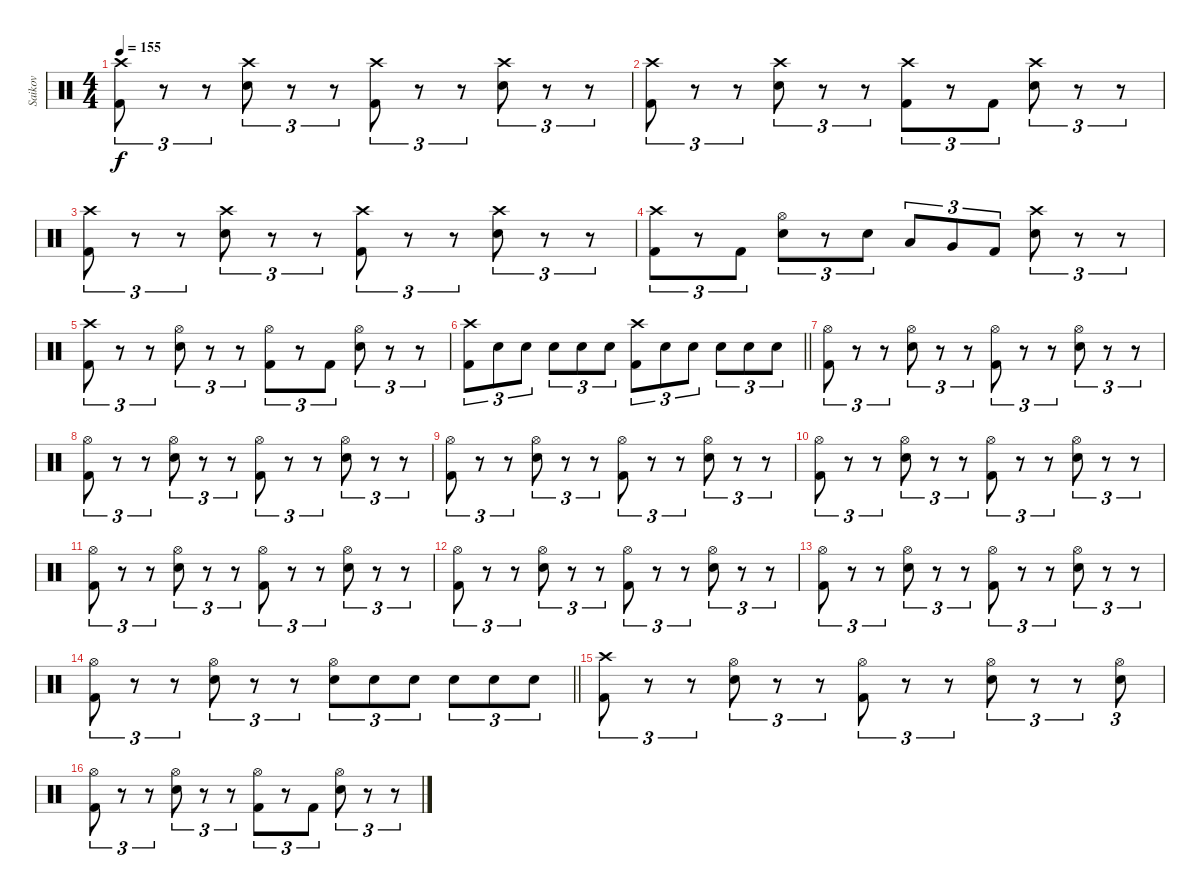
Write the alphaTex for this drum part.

\track ("Saikov" "Saikov") {instrument percussion}
\staff {score}
\articulation defaults
\ts (4 4)
\tempo 155
\clef neutral
\ks c
("Crash high (hit)" "Kick (hit) 2").8{tu (3 2) dy f} r.8{tu (3 2)} r.8{tu (3 2)} ("Crash high (hit)" "Snare (hit) 2").8{tu (3 2)} r.8{tu (3 2)} r.8{tu (3 2)} ("Crash high (hit)" "Kick (hit) 2").8{tu (3 2)} r.8{tu (3 2)} r.8{tu (3 2)} ("Crash high (hit)" "Snare (hit) 2").8{tu (3 2)} r.8{tu (3 2)} r.8{tu (3 2)} |
("Crash high (hit)" "Kick (hit) 2").8{tu (3 2)} r.8{tu (3 2)} r.8{tu (3 2)} ("Crash high (hit)" "Snare (hit) 2").8{tu (3 2)} r.8{tu (3 2)} r.8{tu (3 2)} ("Crash high (hit)" "Kick (hit) 2").8{tu (3 2)} r.8{tu (3 2)} "Kick (hit) 2".8{tu (3 2)} ("Crash high (hit)" "Snare (hit) 2").8{tu (3 2)} r.8{tu (3 2)} r.8{tu (3 2)} |
("Crash high (hit)" "Kick (hit) 2").8{tu (3 2)} r.8{tu (3 2)} r.8{tu (3 2)} ("Crash high (hit)" "Snare (hit) 2").8{tu (3 2)} r.8{tu (3 2)} r.8{tu (3 2)} ("Crash high (hit)" "Kick (hit) 2").8{tu (3 2)} r.8{tu (3 2)} r.8{tu (3 2)} ("Crash high (hit)" "Snare (hit) 2").8{tu (3 2)} r.8{tu (3 2)} r.8{tu (3 2)} |
("Crash high (hit)" "Kick (hit) 2").8{tu (3 2)} r.8{tu (3 2)} "Kick (hit) 2".8{tu (3 2)} ("Hi-Hat (open)" "Snare (hit) 2").8{tu (3 2)} r.8{tu (3 2)} "Snare (hit) 2".8{tu (3 2)} "Low Tom (hit)".8{tu (3 2)} "Very Low Tom (hit)".8{tu (3 2)} "Kick (hit) 2".8{tu (3 2)} ("Crash high (hit)" "Snare (hit) 2").8{tu (3 2)} r.8{tu (3 2)} r.8{tu (3 2)} |
("Crash high (hit)" "Kick (hit) 2").8{tu (3 2)} r.8{tu (3 2)} r.8{tu (3 2)} ("Hi-Hat (open)" "Snare (hit) 2").8{tu (3 2)} r.8{tu (3 2)} r.8{tu (3 2)} ("Hi-Hat (open)" "Kick (hit) 2").8{tu (3 2)} r.8{tu (3 2)} "Kick (hit) 2".8{tu (3 2)} ("Hi-Hat (open)" "Snare (hit) 2").8{tu (3 2)} r.8{tu (3 2)} r.8{tu (3 2)} |
\barLineRight lightlight
("Crash high (hit)" "Kick (hit) 2").8{tu (3 2)} "Snare (hit) 2".8{tu (3 2)} "Snare (hit) 2".8{tu (3 2)} "Snare (hit) 2".8{tu (3 2)} "Snare (hit) 2".8{tu (3 2)} "Snare (hit) 2".8{tu (3 2)} ("Crash high (hit)" "Kick (hit) 2").8{tu (3 2)} "Snare (hit) 2".8{tu (3 2)} "Snare (hit) 2".8{tu (3 2)} "Snare (hit) 2".8{tu (3 2)} "Snare (hit) 2".8{tu (3 2)} "Snare (hit) 2".8{tu (3 2)} |
("Hi-Hat (open)" "Kick (hit) 2").8{tu (3 2)} r.8{tu (3 2)} r.8{tu (3 2)} ("Hi-Hat (open)" "Snare (hit) 2").8{tu (3 2)} r.8{tu (3 2)} r.8{tu (3 2)} ("Hi-Hat (open)" "Kick (hit) 2").8{tu (3 2)} r.8{tu (3 2)} r.8{tu (3 2)} ("Hi-Hat (open)" "Snare (hit) 2").8{tu (3 2)} r.8{tu (3 2)} r.8{tu (3 2)} |
("Hi-Hat (open)" "Kick (hit) 2").8{tu (3 2)} r.8{tu (3 2)} r.8{tu (3 2)} ("Hi-Hat (open)" "Snare (hit) 2").8{tu (3 2)} r.8{tu (3 2)} r.8{tu (3 2)} ("Hi-Hat (open)" "Kick (hit) 2").8{tu (3 2)} r.8{tu (3 2)} r.8{tu (3 2)} ("Hi-Hat (open)" "Snare (hit) 2").8{tu (3 2)} r.8{tu (3 2)} r.8{tu (3 2)} |
("Hi-Hat (open)" "Kick (hit) 2").8{tu (3 2)} r.8{tu (3 2)} r.8{tu (3 2)} ("Hi-Hat (open)" "Snare (hit) 2").8{tu (3 2)} r.8{tu (3 2)} r.8{tu (3 2)} ("Hi-Hat (open)" "Kick (hit) 2").8{tu (3 2)} r.8{tu (3 2)} r.8{tu (3 2)} ("Hi-Hat (open)" "Snare (hit) 2").8{tu (3 2)} r.8{tu (3 2)} r.8{tu (3 2)} |
("Hi-Hat (open)" "Kick (hit) 2").8{tu (3 2)} r.8{tu (3 2)} r.8{tu (3 2)} ("Hi-Hat (open)" "Snare (hit) 2").8{tu (3 2)} r.8{tu (3 2)} r.8{tu (3 2)} ("Hi-Hat (open)" "Kick (hit) 2").8{tu (3 2)} r.8{tu (3 2)} r.8{tu (3 2)} ("Hi-Hat (open)" "Snare (hit) 2").8{tu (3 2)} r.8{tu (3 2)} r.8{tu (3 2)} |
("Hi-Hat (open)" "Kick (hit) 2").8{tu (3 2)} r.8{tu (3 2)} r.8{tu (3 2)} ("Hi-Hat (open)" "Snare (hit) 2").8{tu (3 2)} r.8{tu (3 2)} r.8{tu (3 2)} ("Hi-Hat (open)" "Kick (hit) 2").8{tu (3 2)} r.8{tu (3 2)} r.8{tu (3 2)} ("Hi-Hat (open)" "Snare (hit) 2").8{tu (3 2)} r.8{tu (3 2)} r.8{tu (3 2)} |
("Hi-Hat (open)" "Kick (hit) 2").8{tu (3 2)} r.8{tu (3 2)} r.8{tu (3 2)} ("Hi-Hat (open)" "Snare (hit) 2").8{tu (3 2)} r.8{tu (3 2)} r.8{tu (3 2)} ("Hi-Hat (open)" "Kick (hit) 2").8{tu (3 2)} r.8{tu (3 2)} r.8{tu (3 2)} ("Hi-Hat (open)" "Snare (hit) 2").8{tu (3 2)} r.8{tu (3 2)} r.8{tu (3 2)} |
("Hi-Hat (open)" "Kick (hit) 2").8{tu (3 2)} r.8{tu (3 2)} r.8{tu (3 2)} ("Hi-Hat (open)" "Snare (hit) 2").8{tu (3 2)} r.8{tu (3 2)} r.8{tu (3 2)} ("Hi-Hat (open)" "Kick (hit) 2").8{tu (3 2)} r.8{tu (3 2)} r.8{tu (3 2)} ("Hi-Hat (open)" "Snare (hit) 2").8{tu (3 2)} r.8{tu (3 2)} r.8{tu (3 2)} |
\barLineRight lightlight
("Hi-Hat (open)" "Kick (hit) 2").8{tu (3 2)} r.8{tu (3 2)} r.8{tu (3 2)} ("Hi-Hat (open)" "Snare (hit) 2").8{tu (3 2)} r.8{tu (3 2)} r.8{tu (3 2)} ("Hi-Hat (open)" "Snare (hit) 2").8{tu (3 2)} "Snare (hit) 2".8{tu (3 2)} "Snare (hit) 2".8{tu (3 2)} "Snare (hit) 2".8{tu (3 2)} "Snare (hit) 2".8{tu (3 2)} "Snare (hit) 2".8{tu (3 2)} |
("Crash high (hit)" "Kick (hit) 2").8{tu (3 2)} r.8{tu (3 2)} r.8{tu (3 2)} ("Hi-Hat (open)" "Snare (hit) 2").8{tu (3 2)} r.8{tu (3 2)} r.8{tu (3 2)} ("Hi-Hat (open)" "Kick (hit) 2").8{tu (3 2)} r.8{tu (3 2)} r.8{tu (3 2)} ("Hi-Hat (open)" "Snare (hit) 2").8{tu (3 2)} r.8{tu (3 2)} r.8{tu (3 2)} ("Hi-Hat (open)" "Snare (hit) 2").8{tu (3 2)} |
("Hi-Hat (open)" "Kick (hit) 2").8{tu (3 2)} r.8{tu (3 2)} r.8{tu (3 2)} ("Hi-Hat (open)" "Snare (hit) 2").8{tu (3 2)} r.8{tu (3 2)} r.8{tu (3 2)} ("Hi-Hat (open)" "Kick (hit) 2").8{tu (3 2)} r.8{tu (3 2)} "Kick (hit) 2".8{tu (3 2)} ("Hi-Hat (open)" "Snare (hit) 2").8{tu (3 2)} r.8{tu (3 2)} r.8{tu (3 2)}
